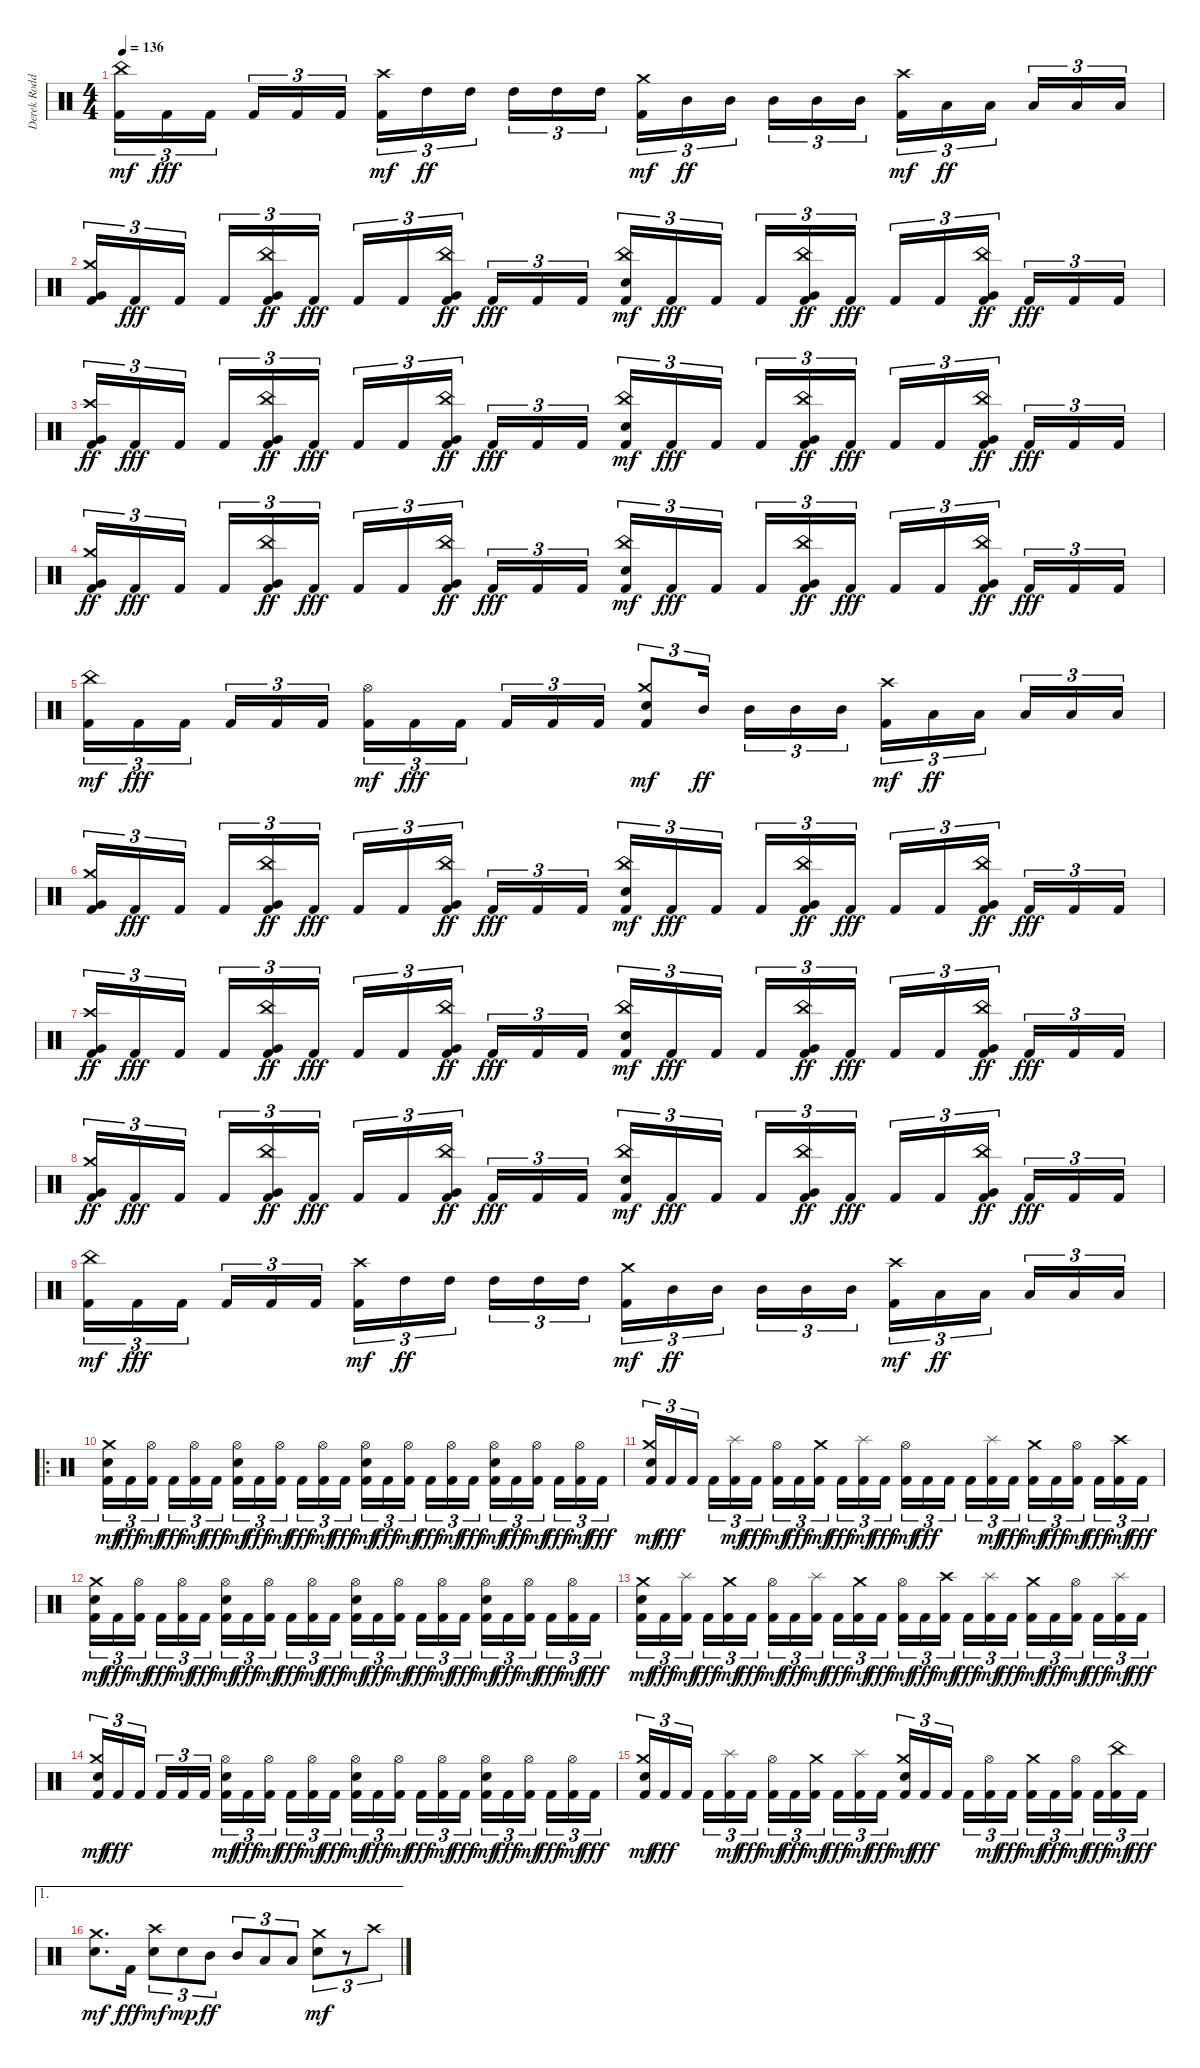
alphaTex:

\track ("Derek Roddy" "Derek Rodd") {instrument percussion}
\staff {score}
\articulation defaults
\ts (4 4)
\tempo 136
\clef neutral
\ks c
("Kick (hit) 2" "China (hit)").16{tu (3 2) dy mf} "Kick (hit) 2".16{tu (3 2) dy fff} "Kick (hit) 2".16{tu (3 2) beam splitsecondary} "Kick (hit) 2".16{tu (3 2)} "Kick (hit) 2".16{tu (3 2)} "Kick (hit) 2".16{tu (3 2)} ("Kick (hit) 2" "Crash high (hit)").16{tu (3 2) dy mf} "High Tom (hit)".16{tu (3 2) dy ff} "High Tom (hit)".16{tu (3 2) beam splitsecondary} "High Tom (hit)".16{tu (3 2)} "High Tom (hit)".16{tu (3 2)} "High Tom (hit)".16{tu (3 2)} ("Kick (hit) 2" "Crash medium (hit)").16{tu (3 2) dy mf} "Mid Tom (hit)".16{tu (3 2) dy ff} "Mid Tom (hit)".16{tu (3 2) beam splitsecondary} "Mid Tom (hit)".16{tu (3 2)} "Mid Tom (hit)".16{tu (3 2)} "Mid Tom (hit)".16{tu (3 2)} ("Kick (hit) 2" "Crash high (hit)").16{tu (3 2) dy mf} "Low Tom (hit)".16{tu (3 2) dy ff} "Low Tom (hit)".16{tu (3 2) beam splitsecondary} "Low Tom (hit)".16{tu (3 2)} "Low Tom (hit)".16{tu (3 2)} "Low Tom (hit)".16{tu (3 2)} |
("Kick (hit) 2" "Crash medium (hit)" "Very Low Tom (hit)").16{tu (3 2)} "Kick (hit) 2".16{tu (3 2) dy fff} "Kick (hit) 2".16{tu (3 2) beam splitsecondary} "Kick (hit) 2".16{tu (3 2)} ("Kick (hit) 2" "China (hit)" "Very Low Tom (hit)").16{tu (3 2) dy ff} "Kick (hit) 2".16{tu (3 2) dy fff} "Kick (hit) 2".16{tu (3 2)} "Kick (hit) 2".16{tu (3 2)} ("Kick (hit) 2" "China (hit)" "Very Low Tom (hit)").16{tu (3 2) dy ff beam splitsecondary} "Kick (hit) 2".16{tu (3 2) dy fff} "Kick (hit) 2".16{tu (3 2)} "Kick (hit) 2".16{tu (3 2)} ("Kick (hit) 2" "Electric Snare (hit)" "China (hit)").16{tu (3 2) dy mf} "Kick (hit) 2".16{tu (3 2) dy fff} "Kick (hit) 2".16{tu (3 2) beam splitsecondary} "Kick (hit) 2".16{tu (3 2)} ("Kick (hit) 2" "China (hit)" "Very Low Tom (hit)").16{tu (3 2) dy ff} "Kick (hit) 2".16{tu (3 2) dy fff} "Kick (hit) 2".16{tu (3 2)} "Kick (hit) 2".16{tu (3 2)} ("Kick (hit) 2" "China (hit)" "Very Low Tom (hit)").16{tu (3 2) dy ff beam splitsecondary} "Kick (hit) 2".16{tu (3 2) dy fff} "Kick (hit) 2".16{tu (3 2)} "Kick (hit) 2".16{tu (3 2)} |
("Kick (hit) 2" "Crash high (hit)" "Very Low Tom (hit)").16{tu (3 2) dy ff} "Kick (hit) 2".16{tu (3 2) dy fff} "Kick (hit) 2".16{tu (3 2) beam splitsecondary} "Kick (hit) 2".16{tu (3 2)} ("Kick (hit) 2" "China (hit)" "Very Low Tom (hit)").16{tu (3 2) dy ff} "Kick (hit) 2".16{tu (3 2) dy fff} "Kick (hit) 2".16{tu (3 2)} "Kick (hit) 2".16{tu (3 2)} ("Kick (hit) 2" "China (hit)" "Very Low Tom (hit)").16{tu (3 2) dy ff beam splitsecondary} "Kick (hit) 2".16{tu (3 2) dy fff} "Kick (hit) 2".16{tu (3 2)} "Kick (hit) 2".16{tu (3 2)} ("Kick (hit) 2" "Electric Snare (hit)" "China (hit)").16{tu (3 2) dy mf} "Kick (hit) 2".16{tu (3 2) dy fff} "Kick (hit) 2".16{tu (3 2) beam splitsecondary} "Kick (hit) 2".16{tu (3 2)} ("Kick (hit) 2" "China (hit)" "Very Low Tom (hit)").16{tu (3 2) dy ff} "Kick (hit) 2".16{tu (3 2) dy fff} "Kick (hit) 2".16{tu (3 2)} "Kick (hit) 2".16{tu (3 2)} ("Kick (hit) 2" "China (hit)" "Very Low Tom (hit)").16{tu (3 2) dy ff beam splitsecondary} "Kick (hit) 2".16{tu (3 2) dy fff} "Kick (hit) 2".16{tu (3 2)} "Kick (hit) 2".16{tu (3 2)} |
("Kick (hit) 2" "Crash medium (hit)" "Very Low Tom (hit)").16{tu (3 2) dy ff} "Kick (hit) 2".16{tu (3 2) dy fff} "Kick (hit) 2".16{tu (3 2) beam splitsecondary} "Kick (hit) 2".16{tu (3 2)} ("Kick (hit) 2" "China (hit)" "Very Low Tom (hit)").16{tu (3 2) dy ff} "Kick (hit) 2".16{tu (3 2) dy fff} "Kick (hit) 2".16{tu (3 2)} "Kick (hit) 2".16{tu (3 2)} ("Kick (hit) 2" "China (hit)" "Very Low Tom (hit)").16{tu (3 2) dy ff beam splitsecondary} "Kick (hit) 2".16{tu (3 2) dy fff} "Kick (hit) 2".16{tu (3 2)} "Kick (hit) 2".16{tu (3 2)} ("Kick (hit) 2" "Electric Snare (hit)" "China (hit)").16{tu (3 2) dy mf} "Kick (hit) 2".16{tu (3 2) dy fff} "Kick (hit) 2".16{tu (3 2) beam splitsecondary} "Kick (hit) 2".16{tu (3 2)} ("Kick (hit) 2" "China (hit)" "Very Low Tom (hit)").16{tu (3 2) dy ff} "Kick (hit) 2".16{tu (3 2) dy fff} "Kick (hit) 2".16{tu (3 2)} "Kick (hit) 2".16{tu (3 2)} ("Kick (hit) 2" "China (hit)" "Very Low Tom (hit)").16{tu (3 2) dy ff beam splitsecondary} "Kick (hit) 2".16{tu (3 2) dy fff} "Kick (hit) 2".16{tu (3 2)} "Kick (hit) 2".16{tu (3 2)} |
("Kick (hit) 2" "China (hit)").16{tu (3 2) dy mf} "Kick (hit) 2".16{tu (3 2) dy fff} "Kick (hit) 2".16{tu (3 2) beam splitsecondary} "Kick (hit) 2".16{tu (3 2)} "Kick (hit) 2".16{tu (3 2)} "Kick (hit) 2".16{tu (3 2)} ("Kick (hit) 2" "Hi-Hat (open)").16{tu (3 2) dy mf} "Kick (hit) 2".16{tu (3 2) dy fff} "Kick (hit) 2".16{tu (3 2) beam splitsecondary} "Kick (hit) 2".16{tu (3 2)} "Kick (hit) 2".16{tu (3 2)} "Kick (hit) 2".16{tu (3 2)} ("Kick (hit) 2" "Electric Snare (hit)" "Crash medium (hit)").8{tu (3 2) dy mf} "Mid Tom (hit)".16{tu (3 2) dy ff beam splitsecondary} "Mid Tom (hit)".16{tu (3 2)} "Mid Tom (hit)".16{tu (3 2)} "Mid Tom (hit)".16{tu (3 2)} ("Kick (hit) 2" "Crash high (hit)").16{tu (3 2) dy mf} "Low Tom (hit)".16{tu (3 2) dy ff} "Low Tom (hit)".16{tu (3 2) beam splitsecondary} "Low Tom (hit)".16{tu (3 2)} "Low Tom (hit)".16{tu (3 2)} "Low Tom (hit)".16{tu (3 2)} |
("Kick (hit) 2" "Crash medium (hit)" "Very Low Tom (hit)").16{tu (3 2)} "Kick (hit) 2".16{tu (3 2) dy fff} "Kick (hit) 2".16{tu (3 2) beam splitsecondary} "Kick (hit) 2".16{tu (3 2)} ("Kick (hit) 2" "China (hit)" "Very Low Tom (hit)").16{tu (3 2) dy ff} "Kick (hit) 2".16{tu (3 2) dy fff} "Kick (hit) 2".16{tu (3 2)} "Kick (hit) 2".16{tu (3 2)} ("Kick (hit) 2" "China (hit)" "Very Low Tom (hit)").16{tu (3 2) dy ff beam splitsecondary} "Kick (hit) 2".16{tu (3 2) dy fff} "Kick (hit) 2".16{tu (3 2)} "Kick (hit) 2".16{tu (3 2)} ("Kick (hit) 2" "Electric Snare (hit)" "China (hit)").16{tu (3 2) dy mf} "Kick (hit) 2".16{tu (3 2) dy fff} "Kick (hit) 2".16{tu (3 2) beam splitsecondary} "Kick (hit) 2".16{tu (3 2)} ("Kick (hit) 2" "China (hit)" "Very Low Tom (hit)").16{tu (3 2) dy ff} "Kick (hit) 2".16{tu (3 2) dy fff} "Kick (hit) 2".16{tu (3 2)} "Kick (hit) 2".16{tu (3 2)} ("Kick (hit) 2" "China (hit)" "Very Low Tom (hit)").16{tu (3 2) dy ff beam splitsecondary} "Kick (hit) 2".16{tu (3 2) dy fff} "Kick (hit) 2".16{tu (3 2)} "Kick (hit) 2".16{tu (3 2)} |
("Kick (hit) 2" "Crash high (hit)" "Very Low Tom (hit)").16{tu (3 2) dy ff} "Kick (hit) 2".16{tu (3 2) dy fff} "Kick (hit) 2".16{tu (3 2) beam splitsecondary} "Kick (hit) 2".16{tu (3 2)} ("Kick (hit) 2" "China (hit)" "Very Low Tom (hit)").16{tu (3 2) dy ff} "Kick (hit) 2".16{tu (3 2) dy fff} "Kick (hit) 2".16{tu (3 2)} "Kick (hit) 2".16{tu (3 2)} ("Kick (hit) 2" "China (hit)" "Very Low Tom (hit)").16{tu (3 2) dy ff beam splitsecondary} "Kick (hit) 2".16{tu (3 2) dy fff} "Kick (hit) 2".16{tu (3 2)} "Kick (hit) 2".16{tu (3 2)} ("Kick (hit) 2" "Electric Snare (hit)" "China (hit)").16{tu (3 2) dy mf} "Kick (hit) 2".16{tu (3 2) dy fff} "Kick (hit) 2".16{tu (3 2) beam splitsecondary} "Kick (hit) 2".16{tu (3 2)} ("Kick (hit) 2" "China (hit)" "Very Low Tom (hit)").16{tu (3 2) dy ff} "Kick (hit) 2".16{tu (3 2) dy fff} "Kick (hit) 2".16{tu (3 2)} "Kick (hit) 2".16{tu (3 2)} ("Kick (hit) 2" "China (hit)" "Very Low Tom (hit)").16{tu (3 2) dy ff beam splitsecondary} "Kick (hit) 2".16{tu (3 2) dy fff} "Kick (hit) 2".16{tu (3 2)} "Kick (hit) 2".16{tu (3 2)} |
("Kick (hit) 2" "Crash medium (hit)" "Very Low Tom (hit)").16{tu (3 2) dy ff} "Kick (hit) 2".16{tu (3 2) dy fff} "Kick (hit) 2".16{tu (3 2) beam splitsecondary} "Kick (hit) 2".16{tu (3 2)} ("Kick (hit) 2" "China (hit)" "Very Low Tom (hit)").16{tu (3 2) dy ff} "Kick (hit) 2".16{tu (3 2) dy fff} "Kick (hit) 2".16{tu (3 2)} "Kick (hit) 2".16{tu (3 2)} ("Kick (hit) 2" "China (hit)" "Very Low Tom (hit)").16{tu (3 2) dy ff beam splitsecondary} "Kick (hit) 2".16{tu (3 2) dy fff} "Kick (hit) 2".16{tu (3 2)} "Kick (hit) 2".16{tu (3 2)} ("Kick (hit) 2" "Electric Snare (hit)" "China (hit)").16{tu (3 2) dy mf} "Kick (hit) 2".16{tu (3 2) dy fff} "Kick (hit) 2".16{tu (3 2) beam splitsecondary} "Kick (hit) 2".16{tu (3 2)} ("Kick (hit) 2" "China (hit)" "Very Low Tom (hit)").16{tu (3 2) dy ff} "Kick (hit) 2".16{tu (3 2) dy fff} "Kick (hit) 2".16{tu (3 2)} "Kick (hit) 2".16{tu (3 2)} ("Kick (hit) 2" "China (hit)" "Very Low Tom (hit)").16{tu (3 2) dy ff beam splitsecondary} "Kick (hit) 2".16{tu (3 2) dy fff} "Kick (hit) 2".16{tu (3 2)} "Kick (hit) 2".16{tu (3 2)} |
("Kick (hit) 2" "China (hit)").16{tu (3 2) dy mf} "Kick (hit) 2".16{tu (3 2) dy fff} "Kick (hit) 2".16{tu (3 2) beam splitsecondary} "Kick (hit) 2".16{tu (3 2)} "Kick (hit) 2".16{tu (3 2)} "Kick (hit) 2".16{tu (3 2)} ("Kick (hit) 2" "Crash high (hit)").16{tu (3 2) dy mf} "High Tom (hit)".16{tu (3 2) dy ff} "High Tom (hit)".16{tu (3 2) beam splitsecondary} "High Tom (hit)".16{tu (3 2)} "High Tom (hit)".16{tu (3 2)} "High Tom (hit)".16{tu (3 2)} ("Kick (hit) 2" "Crash medium (hit)").16{tu (3 2) dy mf} "Mid Tom (hit)".16{tu (3 2) dy ff} "Mid Tom (hit)".16{tu (3 2) beam splitsecondary} "Mid Tom (hit)".16{tu (3 2)} "Mid Tom (hit)".16{tu (3 2)} "Mid Tom (hit)".16{tu (3 2)} ("Kick (hit) 2" "Crash high (hit)").16{tu (3 2) dy mf} "Low Tom (hit)".16{tu (3 2) dy ff} "Low Tom (hit)".16{tu (3 2) beam splitsecondary} "Low Tom (hit)".16{tu (3 2)} "Low Tom (hit)".16{tu (3 2)} "Low Tom (hit)".16{tu (3 2)} |
\ro
("Kick (hit) 2" "Electric Snare (hit)" "Crash medium (hit)").16{tu (3 2) dy mf} "Kick (hit) 2".16{tu (3 2) dy fff} ("Kick (hit) 2" "Hi-Hat (open)").16{tu (3 2) dy mf beam splitsecondary} "Kick (hit) 2".16{tu (3 2) dy fff} ("Kick (hit) 2" "Hi-Hat (open)").16{tu (3 2) dy mf} "Kick (hit) 2".16{tu (3 2) dy fff} ("Kick (hit) 2" "Electric Snare (hit)" "Hi-Hat (open)").16{tu (3 2) dy mf} "Kick (hit) 2".16{tu (3 2) dy fff} ("Kick (hit) 2" "Hi-Hat (open)").16{tu (3 2) dy mf beam splitsecondary} "Kick (hit) 2".16{tu (3 2) dy fff} ("Kick (hit) 2" "Hi-Hat (open)").16{tu (3 2) dy mf} "Kick (hit) 2".16{tu (3 2) dy fff} ("Kick (hit) 2" "Electric Snare (hit)" "Hi-Hat (open)").16{tu (3 2) dy mf} "Kick (hit) 2".16{tu (3 2) dy fff} ("Kick (hit) 2" "Hi-Hat (open)").16{tu (3 2) dy mf beam splitsecondary} "Kick (hit) 2".16{tu (3 2) dy fff} ("Kick (hit) 2" "Hi-Hat (open)").16{tu (3 2) dy mf} "Kick (hit) 2".16{tu (3 2) dy fff} ("Kick (hit) 2" "Electric Snare (hit)" "Hi-Hat (open)").16{tu (3 2) dy mf} "Kick (hit) 2".16{tu (3 2) dy fff} ("Kick (hit) 2" "Hi-Hat (open)").16{tu (3 2) dy mf beam splitsecondary} "Kick (hit) 2".16{tu (3 2) dy fff} ("Kick (hit) 2" "Hi-Hat (open)").16{tu (3 2) dy mf} "Kick (hit) 2".16{tu (3 2) dy fff} |
("Kick (hit) 2" "Electric Snare (hit)" "Crash medium (hit)").16{tu (3 2) dy mf} "Kick (hit) 2".16{tu (3 2) dy fff} "Kick (hit) 2".16{tu (3 2) beam splitsecondary} "Kick (hit) 2".16{tu (3 2)} ("Kick (hit) 2" "Splash (hit)").16{tu (3 2) dy mf} "Kick (hit) 2".16{tu (3 2) dy fff} ("Kick (hit) 2" "Hi-Hat (open)").16{tu (3 2) dy mf} "Kick (hit) 2".16{tu (3 2) dy fff} ("Kick (hit) 2" "Crash medium (hit)").16{tu (3 2) dy mf beam splitsecondary} "Kick (hit) 2".16{tu (3 2) dy fff} ("Kick (hit) 2" "Splash (hit)").16{tu (3 2) dy mf} "Kick (hit) 2".16{tu (3 2) dy fff} ("Kick (hit) 2" "Hi-Hat (open)").16{tu (3 2) dy mf} "Kick (hit) 2".16{tu (3 2) dy fff} "Kick (hit) 2".16{tu (3 2) beam splitsecondary} "Kick (hit) 2".16{tu (3 2)} ("Kick (hit) 2" "Splash (hit)").16{tu (3 2) dy mf} "Kick (hit) 2".16{tu (3 2) dy fff} ("Kick (hit) 2" "Crash medium (hit)").16{tu (3 2) dy mf} "Kick (hit) 2".16{tu (3 2) dy fff} ("Kick (hit) 2" "Hi-Hat (open)").16{tu (3 2) dy mf beam splitsecondary} "Kick (hit) 2".16{tu (3 2) dy fff} ("Kick (hit) 2" "Crash high (hit)").16{tu (3 2) dy mf} "Kick (hit) 2".16{tu (3 2) dy fff} |
("Kick (hit) 2" "Electric Snare (hit)" "Crash medium (hit)").16{tu (3 2) dy mf} "Kick (hit) 2".16{tu (3 2) dy fff} ("Kick (hit) 2" "Hi-Hat (open)").16{tu (3 2) dy mf beam splitsecondary} "Kick (hit) 2".16{tu (3 2) dy fff} ("Kick (hit) 2" "Hi-Hat (open)").16{tu (3 2) dy mf} "Kick (hit) 2".16{tu (3 2) dy fff} ("Kick (hit) 2" "Electric Snare (hit)" "Hi-Hat (open)").16{tu (3 2) dy mf} "Kick (hit) 2".16{tu (3 2) dy fff} ("Kick (hit) 2" "Hi-Hat (open)").16{tu (3 2) dy mf beam splitsecondary} "Kick (hit) 2".16{tu (3 2) dy fff} ("Kick (hit) 2" "Hi-Hat (open)").16{tu (3 2) dy mf} "Kick (hit) 2".16{tu (3 2) dy fff} ("Kick (hit) 2" "Electric Snare (hit)" "Hi-Hat (open)").16{tu (3 2) dy mf} "Kick (hit) 2".16{tu (3 2) dy fff} ("Kick (hit) 2" "Hi-Hat (open)").16{tu (3 2) dy mf beam splitsecondary} "Kick (hit) 2".16{tu (3 2) dy fff} ("Kick (hit) 2" "Hi-Hat (open)").16{tu (3 2) dy mf} "Kick (hit) 2".16{tu (3 2) dy fff} ("Kick (hit) 2" "Electric Snare (hit)" "Hi-Hat (open)").16{tu (3 2) dy mf} "Kick (hit) 2".16{tu (3 2) dy fff} ("Kick (hit) 2" "Hi-Hat (open)").16{tu (3 2) dy mf beam splitsecondary} "Kick (hit) 2".16{tu (3 2) dy fff} ("Kick (hit) 2" "Hi-Hat (open)").16{tu (3 2) dy mf} "Kick (hit) 2".16{tu (3 2) dy fff} |
("Kick (hit) 2" "Electric Snare (hit)" "Crash medium (hit)").16{tu (3 2) dy mf} "Kick (hit) 2".16{tu (3 2) dy fff} ("Kick (hit) 2" "Splash (hit)").16{tu (3 2) dy mf beam splitsecondary} "Kick (hit) 2".16{tu (3 2) dy fff} ("Kick (hit) 2" "Crash medium (hit)").16{tu (3 2) dy mf} "Kick (hit) 2".16{tu (3 2) dy fff} ("Kick (hit) 2" "Hi-Hat (open)").16{tu (3 2) dy mf} "Kick (hit) 2".16{tu (3 2) dy fff} ("Kick (hit) 2" "Splash (hit)").16{tu (3 2) dy mf beam splitsecondary} "Kick (hit) 2".16{tu (3 2) dy fff} ("Kick (hit) 2" "Crash medium (hit)").16{tu (3 2) dy mf} "Kick (hit) 2".16{tu (3 2) dy fff} ("Kick (hit) 2" "Hi-Hat (open)").16{tu (3 2) dy mf} "Kick (hit) 2".16{tu (3 2) dy fff} ("Kick (hit) 2" "Crash high (hit)").16{tu (3 2) dy mf beam splitsecondary} "Kick (hit) 2".16{tu (3 2) dy fff} ("Kick (hit) 2" "Splash (hit)").16{tu (3 2) dy mf} "Kick (hit) 2".16{tu (3 2) dy fff} ("Kick (hit) 2" "Crash medium (hit)").16{tu (3 2) dy mf} "Kick (hit) 2".16{tu (3 2) dy fff} ("Kick (hit) 2" "Hi-Hat (open)").16{tu (3 2) dy mf beam splitsecondary} "Kick (hit) 2".16{tu (3 2) dy fff} ("Kick (hit) 2" "Splash (hit)").16{tu (3 2) dy mf} "Kick (hit) 2".16{tu (3 2) dy fff} |
("Kick (hit) 2" "Electric Snare (hit)" "Crash medium (hit)").16{tu (3 2) dy mf} "Kick (hit) 2".16{tu (3 2) dy fff} "Kick (hit) 2".16{tu (3 2) beam splitsecondary} "Kick (hit) 2".16{tu (3 2)} "Kick (hit) 2".16{tu (3 2)} "Kick (hit) 2".16{tu (3 2)} ("Kick (hit) 2" "Electric Snare (hit)" "Hi-Hat (open)").16{tu (3 2) dy mf} "Kick (hit) 2".16{tu (3 2) dy fff} ("Kick (hit) 2" "Hi-Hat (open)").16{tu (3 2) dy mf beam splitsecondary} "Kick (hit) 2".16{tu (3 2) dy fff} ("Kick (hit) 2" "Hi-Hat (open)").16{tu (3 2) dy mf} "Kick (hit) 2".16{tu (3 2) dy fff} ("Kick (hit) 2" "Electric Snare (hit)" "Hi-Hat (open)").16{tu (3 2) dy mf} "Kick (hit) 2".16{tu (3 2) dy fff} ("Kick (hit) 2" "Hi-Hat (open)").16{tu (3 2) dy mf beam splitsecondary} "Kick (hit) 2".16{tu (3 2) dy fff} ("Kick (hit) 2" "Hi-Hat (open)").16{tu (3 2) dy mf} "Kick (hit) 2".16{tu (3 2) dy fff} ("Kick (hit) 2" "Electric Snare (hit)" "Hi-Hat (open)").16{tu (3 2) dy mf} "Kick (hit) 2".16{tu (3 2) dy fff} ("Kick (hit) 2" "Hi-Hat (open)").16{tu (3 2) dy mf beam splitsecondary} "Kick (hit) 2".16{tu (3 2) dy fff} ("Kick (hit) 2" "Hi-Hat (open)").16{tu (3 2) dy mf} "Kick (hit) 2".16{tu (3 2) dy fff} |
("Kick (hit) 2" "Electric Snare (hit)" "Crash medium (hit)").16{tu (3 2) dy mf} "Kick (hit) 2".16{tu (3 2) dy fff} "Kick (hit) 2".16{tu (3 2) beam splitsecondary} "Kick (hit) 2".16{tu (3 2)} ("Kick (hit) 2" "Splash (hit)").16{tu (3 2) dy mf} "Kick (hit) 2".16{tu (3 2) dy fff} ("Kick (hit) 2" "Hi-Hat (open)").16{tu (3 2) dy mf} "Kick (hit) 2".16{tu (3 2) dy fff} ("Kick (hit) 2" "Crash medium (hit)").16{tu (3 2) dy mf beam splitsecondary} "Kick (hit) 2".16{tu (3 2) dy fff} ("Kick (hit) 2" "Splash (hit)").16{tu (3 2) dy mf} "Kick (hit) 2".16{tu (3 2) dy fff} ("Kick (hit) 2" "Electric Snare (hit)" "Crash medium (hit)").16{tu (3 2) dy mf} "Kick (hit) 2".16{tu (3 2) dy fff} "Kick (hit) 2".16{tu (3 2) beam splitsecondary} "Kick (hit) 2".16{tu (3 2)} ("Kick (hit) 2" "Hi-Hat (open)").16{tu (3 2) dy mf} "Kick (hit) 2".16{tu (3 2) dy fff} ("Kick (hit) 2" "Crash medium (hit)").16{tu (3 2) dy mf} "Kick (hit) 2".16{tu (3 2) dy fff} ("Kick (hit) 2" "Hi-Hat (open)").16{tu (3 2) dy mf beam splitsecondary} "Kick (hit) 2".16{tu (3 2) dy fff} ("Kick (hit) 2" "China (hit)").16{tu (3 2) dy mf} "Kick (hit) 2".16{tu (3 2) dy fff} |
\ae 1
("Electric Snare (hit)" "Crash medium (hit)").8{d dy mf} "Kick (hit) 2".16{dy fff} ("Electric Snare (hit)" "Crash high (hit)").8{tu (3 2) dy mf} "Electric Snare (hit)".8{tu (3 2) dy mp} "Mid Tom (hit)".8{tu (3 2) dy ff} "Mid Tom (hit)".8{tu (3 2)} "Low Tom (hit)".8{tu (3 2)} "Low Tom (hit)".8{tu (3 2)} ("Electric Snare (hit)" "Crash medium (hit)").8{tu (3 2) dy mf} r.8{tu (3 2)} "Crash high (hit)".8{tu (3 2)}
